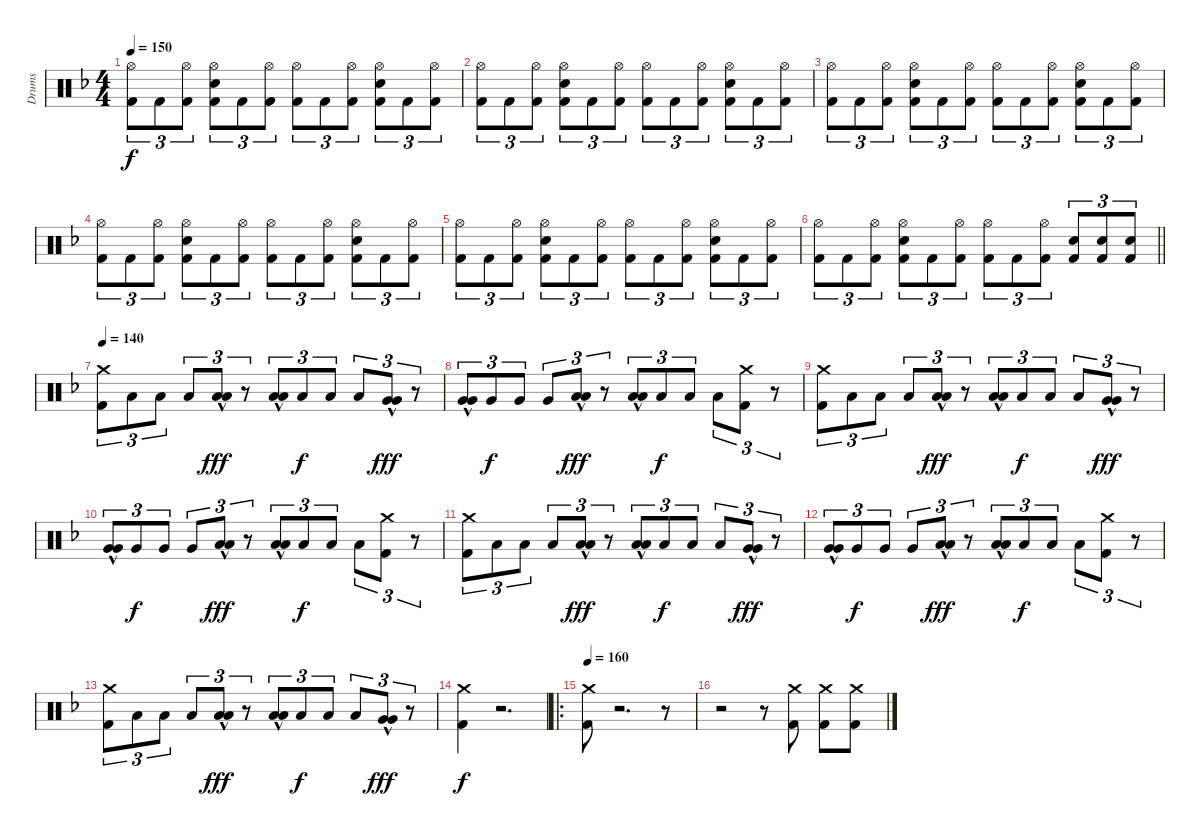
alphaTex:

\track ("Drums" "Drums") {instrument percussion}
\staff {score}
\articulation defaults
\ts (4 4)
\tempo 150
\clef neutral
\ks f
("Hi-Hat (open)" "Kick (hit) 2").8{tu (3 2) dy f} "Kick (hit) 2".8{tu (3 2)} ("Hi-Hat (open)" "Kick (hit) 2").8{tu (3 2)} ("Hi-Hat (open)" "Electric Snare (hit)" "Kick (hit) 2").8{tu (3 2)} "Kick (hit) 2".8{tu (3 2)} ("Hi-Hat (open)" "Kick (hit) 2").8{tu (3 2)} ("Hi-Hat (open)" "Kick (hit) 2").8{tu (3 2)} "Kick (hit) 2".8{tu (3 2)} ("Hi-Hat (open)" "Kick (hit) 2").8{tu (3 2)} ("Hi-Hat (open)" "Electric Snare (hit)" "Kick (hit) 2").8{tu (3 2)} "Kick (hit) 2".8{tu (3 2)} ("Hi-Hat (open)" "Kick (hit) 2").8{tu (3 2)} |
("Hi-Hat (open)" "Kick (hit) 2").8{tu (3 2)} "Kick (hit) 2".8{tu (3 2)} ("Hi-Hat (open)" "Kick (hit) 2").8{tu (3 2)} ("Hi-Hat (open)" "Electric Snare (hit)" "Kick (hit) 2").8{tu (3 2)} "Kick (hit) 2".8{tu (3 2)} ("Hi-Hat (open)" "Kick (hit) 2").8{tu (3 2)} ("Hi-Hat (open)" "Kick (hit) 2").8{tu (3 2)} "Kick (hit) 2".8{tu (3 2)} ("Hi-Hat (open)" "Kick (hit) 2").8{tu (3 2)} ("Hi-Hat (open)" "Electric Snare (hit)" "Kick (hit) 2").8{tu (3 2)} "Kick (hit) 2".8{tu (3 2)} ("Hi-Hat (open)" "Kick (hit) 2").8{tu (3 2)} |
("Hi-Hat (open)" "Kick (hit) 2").8{tu (3 2)} "Kick (hit) 2".8{tu (3 2)} ("Hi-Hat (open)" "Kick (hit) 2").8{tu (3 2)} ("Hi-Hat (open)" "Electric Snare (hit)" "Kick (hit) 2").8{tu (3 2)} "Kick (hit) 2".8{tu (3 2)} ("Hi-Hat (open)" "Kick (hit) 2").8{tu (3 2)} ("Hi-Hat (open)" "Kick (hit) 2").8{tu (3 2)} "Kick (hit) 2".8{tu (3 2)} ("Hi-Hat (open)" "Kick (hit) 2").8{tu (3 2)} ("Hi-Hat (open)" "Electric Snare (hit)" "Kick (hit) 2").8{tu (3 2)} "Kick (hit) 2".8{tu (3 2)} ("Hi-Hat (open)" "Kick (hit) 2").8{tu (3 2)} |
("Hi-Hat (open)" "Kick (hit) 2").8{tu (3 2)} "Kick (hit) 2".8{tu (3 2)} ("Hi-Hat (open)" "Kick (hit) 2").8{tu (3 2)} ("Hi-Hat (open)" "Electric Snare (hit)" "Kick (hit) 2").8{tu (3 2)} "Kick (hit) 2".8{tu (3 2)} ("Hi-Hat (open)" "Kick (hit) 2").8{tu (3 2)} ("Hi-Hat (open)" "Kick (hit) 2").8{tu (3 2)} "Kick (hit) 2".8{tu (3 2)} ("Hi-Hat (open)" "Kick (hit) 2").8{tu (3 2)} ("Hi-Hat (open)" "Electric Snare (hit)" "Kick (hit) 2").8{tu (3 2)} "Kick (hit) 2".8{tu (3 2)} ("Hi-Hat (open)" "Kick (hit) 2").8{tu (3 2)} |
("Hi-Hat (open)" "Kick (hit) 2").8{tu (3 2)} "Kick (hit) 2".8{tu (3 2)} ("Hi-Hat (open)" "Kick (hit) 2").8{tu (3 2)} ("Hi-Hat (open)" "Electric Snare (hit)" "Kick (hit) 2").8{tu (3 2)} "Kick (hit) 2".8{tu (3 2)} ("Hi-Hat (open)" "Kick (hit) 2").8{tu (3 2)} ("Hi-Hat (open)" "Kick (hit) 2").8{tu (3 2)} "Kick (hit) 2".8{tu (3 2)} ("Hi-Hat (open)" "Kick (hit) 2").8{tu (3 2)} ("Hi-Hat (open)" "Electric Snare (hit)" "Kick (hit) 2").8{tu (3 2)} "Kick (hit) 2".8{tu (3 2)} ("Hi-Hat (open)" "Kick (hit) 2").8{tu (3 2)} |
\barLineRight lightlight
("Hi-Hat (open)" "Kick (hit) 2").8{tu (3 2)} "Kick (hit) 2".8{tu (3 2)} ("Hi-Hat (open)" "Kick (hit) 2").8{tu (3 2)} ("Hi-Hat (open)" "Electric Snare (hit)" "Kick (hit) 2").8{tu (3 2)} "Kick (hit) 2".8{tu (3 2)} ("Hi-Hat (open)" "Kick (hit) 2").8{tu (3 2)} ("Hi-Hat (open)" "Kick (hit) 2").8{tu (3 2)} "Kick (hit) 2".8{tu (3 2)} ("Hi-Hat (open)" "Kick (hit) 2").8{tu (3 2)} ("Electric Snare (hit)" "Kick (hit) 2").8{tu (3 2)} ("Electric Snare (hit)" "Kick (hit) 2").8{tu (3 2)} ("Electric Snare (hit)" "Kick (hit) 2").8{tu (3 2)} |
\tempo 140
("Crash medium (hit)" "Kick (hit) 2").8{tu (3 2)} "Low Tom (hit)".8{tu (3 2)} "Low Tom (hit)".8{tu (3 2)} "Low Tom (hit)".8{tu (3 2)} ("Low Tom (hit)"{hac} "Low Tom (hit)"{hac}).8{tu (3 2) dy fff} r.8{tu (3 2)} ("Low Tom (hit)"{hac} "Low Tom (hit)"{hac}).8{tu (3 2)} "Low Tom (hit)".8{tu (3 2) dy f} "Low Tom (hit)".8{tu (3 2)} "Low Tom (hit)".8{tu (3 2)} ("Very Low Tom (hit)"{hac} "Very Low Tom (hit)"{hac}).8{tu (3 2) dy fff} r.8{tu (3 2)} |
("Very Low Tom (hit)"{hac} "Very Low Tom (hit)"{hac}).8{tu (3 2)} "Very Low Tom (hit)".8{tu (3 2) dy f} "Very Low Tom (hit)".8{tu (3 2)} "Very Low Tom (hit)".8{tu (3 2)} ("Low Floor Tom (hit)"{hac} "Low Floor Tom (hit)"{hac}).8{tu (3 2) dy fff} r.8{tu (3 2)} ("Low Floor Tom (hit)" "Low Floor Tom (hit)"{hac}).8{tu (3 2)} "Low Floor Tom (hit)".8{tu (3 2) dy f} "Low Floor Tom (hit)".8{tu (3 2)} "Low Floor Tom (hit)".8{tu (3 2)} ("Crash medium (hit)" "Kick (hit) 2").8{tu (3 2)} r.8{tu (3 2)} |
("Crash medium (hit)" "Kick (hit) 2").8{tu (3 2)} "Low Tom (hit)".8{tu (3 2)} "Low Tom (hit)".8{tu (3 2)} "Low Tom (hit)".8{tu (3 2)} ("Low Tom (hit)"{hac} "Low Tom (hit)"{hac}).8{tu (3 2) dy fff} r.8{tu (3 2)} ("Low Tom (hit)"{hac} "Low Tom (hit)"{hac}).8{tu (3 2)} "Low Tom (hit)".8{tu (3 2) dy f} "Low Tom (hit)".8{tu (3 2)} "Low Tom (hit)".8{tu (3 2)} ("Very Low Tom (hit)"{hac} "Very Low Tom (hit)"{hac}).8{tu (3 2) dy fff} r.8{tu (3 2)} |
("Very Low Tom (hit)"{hac} "Very Low Tom (hit)"{hac}).8{tu (3 2)} "Very Low Tom (hit)".8{tu (3 2) dy f} "Very Low Tom (hit)".8{tu (3 2)} "Very Low Tom (hit)".8{tu (3 2)} ("Low Floor Tom (hit)"{hac} "Low Floor Tom (hit)"{hac}).8{tu (3 2) dy fff} r.8{tu (3 2)} ("Low Floor Tom (hit)"{hac} "Low Floor Tom (hit)"{hac}).8{tu (3 2)} "Low Floor Tom (hit)".8{tu (3 2) dy f} "Low Floor Tom (hit)".8{tu (3 2)} "Low Floor Tom (hit)".8{tu (3 2)} ("Crash medium (hit)" "Kick (hit) 2").8{tu (3 2)} r.8{tu (3 2)} |
("Crash medium (hit)" "Kick (hit) 2").8{tu (3 2)} "Low Tom (hit)".8{tu (3 2)} "Low Tom (hit)".8{tu (3 2)} "Low Tom (hit)".8{tu (3 2)} ("Low Tom (hit)"{hac} "Low Tom (hit)"{hac}).8{tu (3 2) dy fff} r.8{tu (3 2)} ("Low Tom (hit)"{hac} "Low Tom (hit)"{hac}).8{tu (3 2)} "Low Tom (hit)".8{tu (3 2) dy f} "Low Tom (hit)".8{tu (3 2)} "Low Tom (hit)".8{tu (3 2)} ("Very Low Tom (hit)"{hac} "Very Low Tom (hit)"{hac}).8{tu (3 2) dy fff} r.8{tu (3 2)} |
("Very Low Tom (hit)"{hac} "Very Low Tom (hit)"{hac}).8{tu (3 2)} "Very Low Tom (hit)".8{tu (3 2) dy f} "Very Low Tom (hit)".8{tu (3 2)} "Very Low Tom (hit)".8{tu (3 2)} ("Low Floor Tom (hit)"{hac} "Low Floor Tom (hit)"{hac}).8{tu (3 2) dy fff} r.8{tu (3 2)} ("Low Floor Tom (hit)"{hac} "Low Floor Tom (hit)"{hac}).8{tu (3 2)} "Low Floor Tom (hit)".8{tu (3 2) dy f} "Low Floor Tom (hit)".8{tu (3 2)} "Low Floor Tom (hit)".8{tu (3 2)} ("Crash medium (hit)" "Kick (hit) 2").8{tu (3 2)} r.8{tu (3 2)} |
("Crash medium (hit)" "Kick (hit) 2").8{tu (3 2)} "Low Tom (hit)".8{tu (3 2)} "Low Tom (hit)".8{tu (3 2)} "Low Tom (hit)".8{tu (3 2)} ("Low Tom (hit)"{hac} "Low Tom (hit)"{hac}).8{tu (3 2) dy fff} r.8{tu (3 2)} ("Low Tom (hit)"{hac} "Low Tom (hit)"{hac}).8{tu (3 2)} "Low Tom (hit)".8{tu (3 2) dy f} "Low Tom (hit)".8{tu (3 2)} "Low Tom (hit)".8{tu (3 2)} ("Very Low Tom (hit)"{hac} "Very Low Tom (hit)"{hac}).8{tu (3 2) dy fff} r.8{tu (3 2)} |
("Crash medium (hit)" "Kick (hit) 2").4{dy f} r.2{d} |
\ro
\tempo 160
("Crash medium (hit)" "Kick (hit) 2").8 r.2{d} r.8 |
r.2 r.8 ("Crash medium (hit)" "Kick (hit) 2").8 ("Crash medium (hit)" "Kick (hit) 2").8 ("Crash medium (hit)" "Kick (hit) 2").8
